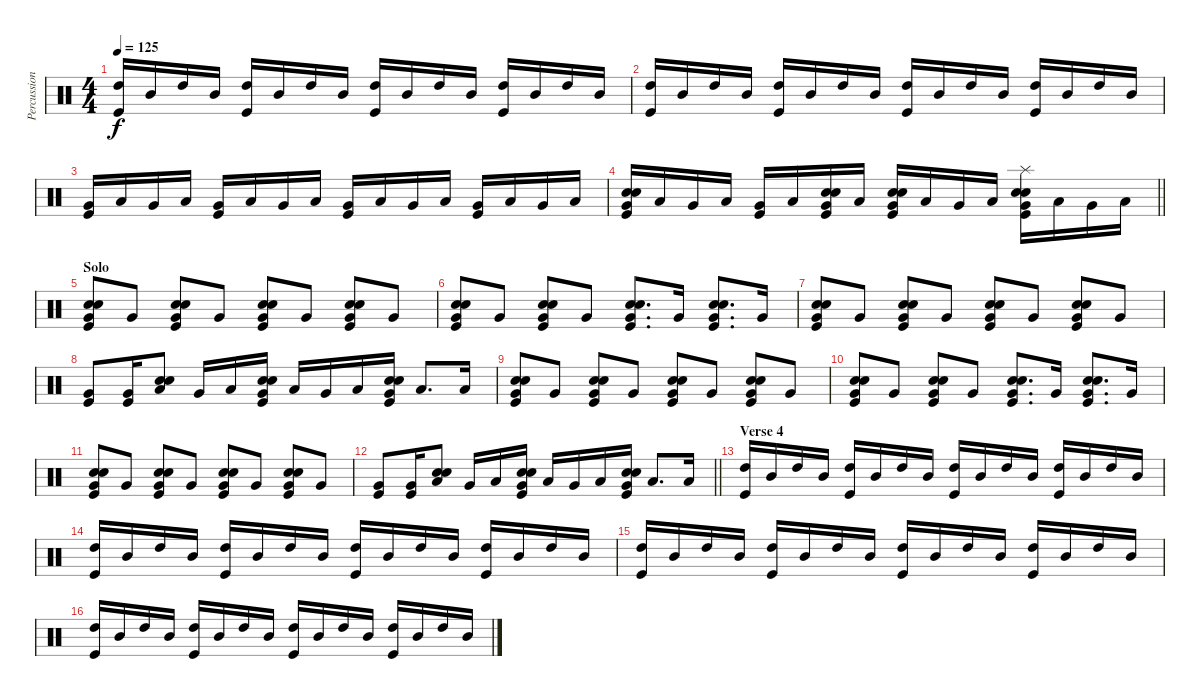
\track ("Percussions" "Percussion") {instrument percussion}
\staff {score}
\articulation defaults
\ts (4 4)
\tempo 125
\clef neutral
\ks c
("High Tom (hit)" "Kick (hit)").16{dy f} "Mid Tom (hit)".16 "High Tom (hit)".16 "Mid Tom (hit)".16 ("High Tom (hit)" "Kick (hit)").16 "Mid Tom (hit)".16 "High Tom (hit)".16 "Mid Tom (hit)".16 ("High Tom (hit)" "Kick (hit)").16 "Mid Tom (hit)".16 "High Tom (hit)".16 "Mid Tom (hit)".16 ("High Tom (hit)" "Kick (hit)").16 "Mid Tom (hit)".16 "High Tom (hit)".16 "Mid Tom (hit)".16 |
("High Tom (hit)" "Kick (hit)").16 "Mid Tom (hit)".16 "High Tom (hit)".16 "Mid Tom (hit)".16 ("High Tom (hit)" "Kick (hit)").16 "Mid Tom (hit)".16 "High Tom (hit)".16 "Mid Tom (hit)".16 ("High Tom (hit)" "Kick (hit)").16 "Mid Tom (hit)".16 "High Tom (hit)".16 "Mid Tom (hit)".16 ("High Tom (hit)" "Kick (hit)").16 "Mid Tom (hit)".16 "High Tom (hit)".16 "Mid Tom (hit)".16 |
("Very Low Tom (hit)" "Kick (hit)").16 "Low Tom (hit)".16 "Very Low Tom (hit)".16 "Low Tom (hit)".16 ("Very Low Tom (hit)" "Kick (hit)").16 "Low Tom (hit)".16 "Very Low Tom (hit)".16 "Low Tom (hit)".16 ("Very Low Tom (hit)" "Kick (hit)").16 "Low Tom (hit)".16 "Very Low Tom (hit)".16 "Low Tom (hit)".16 ("Very Low Tom (hit)" "Kick (hit)").16 "Low Tom (hit)".16 "Very Low Tom (hit)".16 "Low Tom (hit)".16 |
\barLineRight lightlight
("Snare (hit) 2" "Electric Snare (hit)" "Very Low Tom (hit)" "Kick (hit)").16 "Low Tom (hit)".16 "Very Low Tom (hit)".16 "Low Tom (hit)".16 ("Very Low Tom (hit)" "Kick (hit)").16 "Low Tom (hit)".16 ("Snare (hit) 2" "Electric Snare (hit)" "Very Low Tom (hit)" "Kick (hit)").16 "Low Tom (hit)".16 ("Snare (hit) 2" "Electric Snare (hit)" "Very Low Tom (hit)" "Kick (hit)").16 "Low Tom (hit)".16 "Very Low Tom (hit)".16 "Low Tom (hit)".16 ("Snare (hit) 2" "Electric Snare (hit)" "Splash (hit)" "Very Low Tom (hit)" "Kick (hit)").16 "Low Tom (hit)".16 "Very Low Tom (hit)".16 "Low Tom (hit)".16 |
\section ("" "Solo")
("Snare (hit) 2" "Electric Snare (hit)" "Very Low Tom (hit)" "Kick (hit)").8{volume 3} "Very Low Tom (hit)".8 ("Snare (hit) 2" "Electric Snare (hit)" "Very Low Tom (hit)" "Kick (hit)").8 "Very Low Tom (hit)".8 ("Snare (hit) 2" "Electric Snare (hit)" "Very Low Tom (hit)" "Kick (hit)").8 "Very Low Tom (hit)".8 ("Snare (hit) 2" "Electric Snare (hit)" "Very Low Tom (hit)" "Kick (hit)").8 "Very Low Tom (hit)".8 |
("Snare (hit) 2" "Electric Snare (hit)" "Very Low Tom (hit)" "Kick (hit)").8 "Very Low Tom (hit)".8 ("Snare (hit) 2" "Electric Snare (hit)" "Very Low Tom (hit)" "Kick (hit)").8 "Very Low Tom (hit)".8 ("Snare (hit) 2" "Electric Snare (hit)" "Very Low Tom (hit)" "Kick (hit)").8{d} "Very Low Tom (hit)".16 ("Snare (hit) 2" "Electric Snare (hit)" "Very Low Tom (hit)" "Kick (hit)").8{d} "Very Low Tom (hit)".16 |
("Snare (hit) 2" "Electric Snare (hit)" "Very Low Tom (hit)" "Kick (hit)").8 "Very Low Tom (hit)".8 ("Snare (hit) 2" "Electric Snare (hit)" "Very Low Tom (hit)" "Kick (hit)").8 "Very Low Tom (hit)".8 ("Snare (hit) 2" "Electric Snare (hit)" "Very Low Tom (hit)" "Kick (hit)").8 "Very Low Tom (hit)".8 ("Snare (hit) 2" "Electric Snare (hit)" "Very Low Tom (hit)" "Kick (hit)").8 "Very Low Tom (hit)".8 |
("Very Low Tom (hit)" "Kick (hit)").8 ("Very Low Tom (hit)" "Kick (hit)").16 ("Snare (hit) 2" "Electric Snare (hit)" "Low Tom (hit)").8 "Very Low Tom (hit)".16 "Low Tom (hit)".16 ("Snare (hit) 2" "Electric Snare (hit)" "Very Low Tom (hit)" "Kick (hit)").16 "Low Tom (hit)".16 "Very Low Tom (hit)".16 "Low Tom (hit)".16 ("Snare (hit) 2" "Electric Snare (hit)" "Very Low Tom (hit)" "Kick (hit)").16 "Low Tom (hit)".8{d} "Low Tom (hit)".16 |
("Snare (hit) 2" "Electric Snare (hit)" "Very Low Tom (hit)" "Kick (hit)").8 "Very Low Tom (hit)".8 ("Snare (hit) 2" "Electric Snare (hit)" "Very Low Tom (hit)" "Kick (hit)").8 "Very Low Tom (hit)".8 ("Snare (hit) 2" "Electric Snare (hit)" "Very Low Tom (hit)" "Kick (hit)").8 "Very Low Tom (hit)".8 ("Snare (hit) 2" "Electric Snare (hit)" "Very Low Tom (hit)" "Kick (hit)").8 "Very Low Tom (hit)".8 |
("Snare (hit) 2" "Electric Snare (hit)" "Very Low Tom (hit)" "Kick (hit)").8 "Very Low Tom (hit)".8 ("Snare (hit) 2" "Electric Snare (hit)" "Very Low Tom (hit)" "Kick (hit)").8 "Very Low Tom (hit)".8 ("Snare (hit) 2" "Electric Snare (hit)" "Very Low Tom (hit)" "Kick (hit)").8{d} "Very Low Tom (hit)".16 ("Snare (hit) 2" "Electric Snare (hit)" "Very Low Tom (hit)" "Kick (hit)").8{d} "Very Low Tom (hit)".16 |
("Snare (hit) 2" "Electric Snare (hit)" "Very Low Tom (hit)" "Kick (hit)").8 "Very Low Tom (hit)".8 ("Snare (hit) 2" "Electric Snare (hit)" "Very Low Tom (hit)" "Kick (hit)").8 "Very Low Tom (hit)".8 ("Snare (hit) 2" "Electric Snare (hit)" "Very Low Tom (hit)" "Kick (hit)").8 "Very Low Tom (hit)".8 ("Snare (hit) 2" "Electric Snare (hit)" "Very Low Tom (hit)" "Kick (hit)").8 "Very Low Tom (hit)".8 |
\barLineRight lightlight
("Very Low Tom (hit)" "Kick (hit)").8 ("Very Low Tom (hit)" "Kick (hit)").16 ("Snare (hit) 2" "Electric Snare (hit)" "Low Tom (hit)").8 "Very Low Tom (hit)".16 "Low Tom (hit)".16 ("Snare (hit) 2" "Electric Snare (hit)" "Very Low Tom (hit)" "Kick (hit)").16 "Low Tom (hit)".16 "Very Low Tom (hit)".16 "Low Tom (hit)".16 ("Snare (hit) 2" "Electric Snare (hit)" "Very Low Tom (hit)" "Kick (hit)").16 "Low Tom (hit)".8{d} "Low Tom (hit)".16 |
\section ("" "Verse 4")
("High Tom (hit)" "Kick (hit)").16{volume 5} "Mid Tom (hit)".16 "High Tom (hit)".16 "Mid Tom (hit)".16 ("High Tom (hit)" "Kick (hit)").16 "Mid Tom (hit)".16 "High Tom (hit)".16 "Mid Tom (hit)".16 ("High Tom (hit)" "Kick (hit)").16 "Mid Tom (hit)".16 "High Tom (hit)".16 "Mid Tom (hit)".16 ("High Tom (hit)" "Kick (hit)").16 "Mid Tom (hit)".16 "High Tom (hit)".16 "Mid Tom (hit)".16 |
("High Tom (hit)" "Kick (hit)").16 "Mid Tom (hit)".16 "High Tom (hit)".16 "Mid Tom (hit)".16 ("High Tom (hit)" "Kick (hit)").16 "Mid Tom (hit)".16 "High Tom (hit)".16 "Mid Tom (hit)".16 ("High Tom (hit)" "Kick (hit)").16 "Mid Tom (hit)".16 "High Tom (hit)".16 "Mid Tom (hit)".16 ("High Tom (hit)" "Kick (hit)").16 "Mid Tom (hit)".16 "High Tom (hit)".16 "Mid Tom (hit)".16 |
("High Tom (hit)" "Kick (hit)").16 "Mid Tom (hit)".16 "High Tom (hit)".16 "Mid Tom (hit)".16 ("High Tom (hit)" "Kick (hit)").16 "Mid Tom (hit)".16 "High Tom (hit)".16 "Mid Tom (hit)".16 ("High Tom (hit)" "Kick (hit)").16 "Mid Tom (hit)".16 "High Tom (hit)".16 "Mid Tom (hit)".16 ("High Tom (hit)" "Kick (hit)").16 "Mid Tom (hit)".16 "High Tom (hit)".16 "Mid Tom (hit)".16 |
("High Tom (hit)" "Kick (hit)").16 "Mid Tom (hit)".16 "High Tom (hit)".16 "Mid Tom (hit)".16 ("High Tom (hit)" "Kick (hit)").16 "Mid Tom (hit)".16 "High Tom (hit)".16 "Mid Tom (hit)".16 ("High Tom (hit)" "Kick (hit)").16 "Mid Tom (hit)".16 "High Tom (hit)".16 "Mid Tom (hit)".16 ("High Tom (hit)" "Kick (hit)").16 "Mid Tom (hit)".16 "High Tom (hit)".16 "Mid Tom (hit)".16
